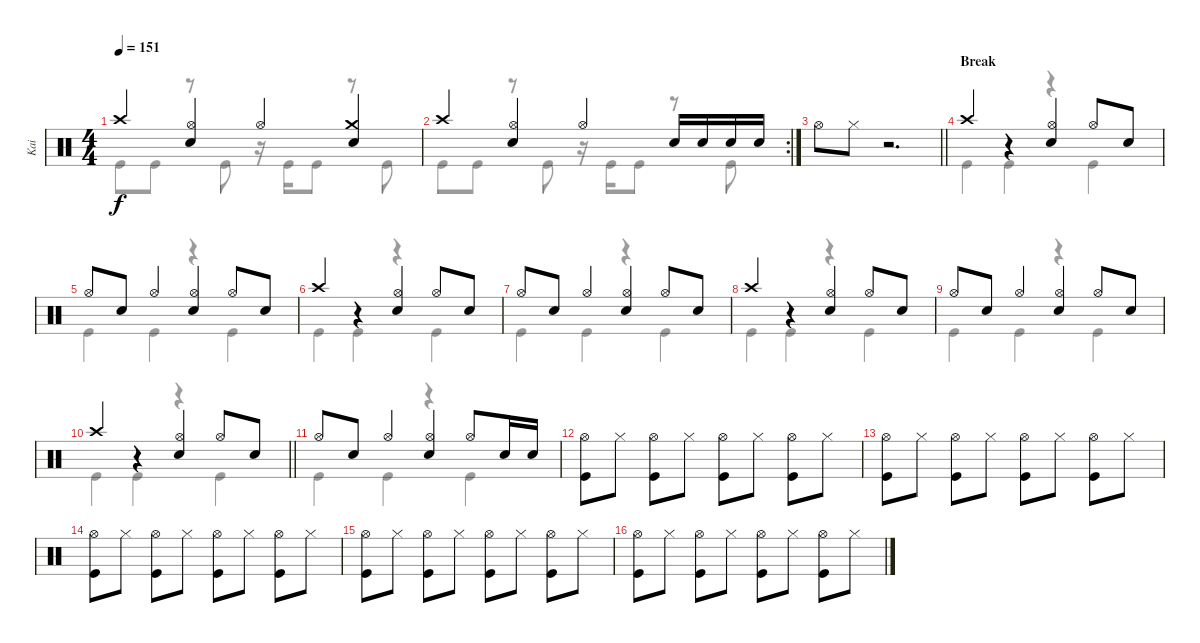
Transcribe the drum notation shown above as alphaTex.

\track ("Kai" "Kai") {instrument percussion}
\staff {score}
\articulation defaults
\voice
\ts (4 4)
\tempo 151
\clef neutral
\ks c "Crash high (hit)".4{dy f}
("Hi-Hat (open)" "Electric Snare (hit)").4 "Hi-Hat (open)".4 ("Crash medium (hit)" "Electric Snare (hit)").4 |
\rc 2 "Crash high (hit)".4
("Hi-Hat (open)" "Electric Snare (hit)").4 "Hi-Hat (open)".4 "Electric Snare (hit)".16 "Electric Snare (hit)".16 "Electric Snare (hit)".16 "Electric Snare (hit)".16 |
\barLineRight lightlight "Hi-Hat (open)".8 "Hi-Hat (closed)".8
r.2{d} |
\section ("" "Break")
"Crash high (hit)".4 r.4 ("Hi-Hat (open)" "Electric Snare (hit)").4 "Hi-Hat (open)".8 "Electric Snare (hit)".8 |
"Hi-Hat (open)".8 "Electric Snare (hit)".8 "Hi-Hat (open)".4 ("Hi-Hat (open)" "Electric Snare (hit)").4 "Hi-Hat (open)".8 "Electric Snare (hit)".8 |
"Crash high (hit)".4 r.4 ("Hi-Hat (open)" "Electric Snare (hit)").4 "Hi-Hat (open)".8 "Electric Snare (hit)".8 |
"Hi-Hat (open)".8 "Electric Snare (hit)".8 "Hi-Hat (open)".4 ("Hi-Hat (open)" "Electric Snare (hit)").4 "Hi-Hat (open)".8 "Electric Snare (hit)".8 |
"Crash high (hit)".4 r.4 ("Hi-Hat (open)" "Electric Snare (hit)").4 "Hi-Hat (open)".8 "Electric Snare (hit)".8 |
"Hi-Hat (open)".8 "Electric Snare (hit)".8 "Hi-Hat (open)".4 ("Hi-Hat (open)" "Electric Snare (hit)").4 "Hi-Hat (open)".8 "Electric Snare (hit)".8 |
\barLineRight lightlight "Crash high (hit)".4
r.4 ("Hi-Hat (open)" "Electric Snare (hit)").4 "Hi-Hat (open)".8 "Electric Snare (hit)".8 |
"Hi-Hat (open)".8 "Electric Snare (hit)".8 "Hi-Hat (open)".4 ("Hi-Hat (open)" "Electric Snare (hit)").4 "Hi-Hat (open)".8 "Electric Snare (hit)".16 "Electric Snare (hit)".16 |
("Hi-Hat (open)" "Kick (hit)").8 "Hi-Hat (closed)".8 ("Hi-Hat (open)" "Kick (hit)").8 "Hi-Hat (closed)".8 ("Hi-Hat (open)" "Kick (hit)").8 "Hi-Hat (closed)".8 ("Hi-Hat (open)" "Kick (hit)").8 "Hi-Hat (closed)".8 |
("Hi-Hat (open)" "Kick (hit)").8 "Hi-Hat (closed)".8 ("Hi-Hat (open)" "Kick (hit)").8 "Hi-Hat (closed)".8 ("Hi-Hat (open)" "Kick (hit)").8 "Hi-Hat (closed)".8 ("Hi-Hat (open)" "Kick (hit)").8 "Hi-Hat (closed)".8 |
("Hi-Hat (open)" "Kick (hit)").8 "Hi-Hat (closed)".8 ("Hi-Hat (open)" "Kick (hit)").8 "Hi-Hat (closed)".8 ("Hi-Hat (open)" "Kick (hit)").8 "Hi-Hat (closed)".8 ("Hi-Hat (open)" "Kick (hit)").8 "Hi-Hat (closed)".8 |
("Hi-Hat (open)" "Kick (hit)").8 "Hi-Hat (closed)".8 ("Hi-Hat (open)" "Kick (hit)").8 "Hi-Hat (closed)".8 ("Hi-Hat (open)" "Kick (hit)").8 "Hi-Hat (closed)".8 ("Hi-Hat (open)" "Kick (hit)").8 "Hi-Hat (closed)".8 |
("Hi-Hat (open)" "Kick (hit)").8 "Hi-Hat (closed)".8 ("Hi-Hat (open)" "Kick (hit)").8 "Hi-Hat (closed)".8 ("Hi-Hat (open)" "Kick (hit)").8 "Hi-Hat (closed)".8 ("Hi-Hat (open)" "Kick (hit)").8 "Hi-Hat (closed)".8
\voice
\clef neutral
\ottava regular
\simile none
\ks c "Kick (hit)".8{dy f} "Kick (hit)".8
r.8 "Kick (hit)".8 r.16 "Kick (hit)".16 "Kick (hit)".8 r.8 "Kick (hit)".8 |
"Kick (hit)".8 "Kick (hit)".8 r.8 "Kick (hit)".8 r.16 "Kick (hit)".16 "Kick (hit)".8 r.8 "Kick (hit)".8 |
\barLineRight lightlight
|
"Kick (hit)".4 "Kick (hit)".4 r.4 "Kick (hit)".4 |
"Kick (hit)".4 "Kick (hit)".4 r.4 "Kick (hit)".4 |
"Kick (hit)".4 "Kick (hit)".4 r.4 "Kick (hit)".4 |
"Kick (hit)".4 "Kick (hit)".4 r.4 "Kick (hit)".4 |
"Kick (hit)".4 "Kick (hit)".4 r.4 "Kick (hit)".4 |
"Kick (hit)".4 "Kick (hit)".4 r.4 "Kick (hit)".4 |
\barLineRight lightlight "Kick (hit)".4 "Kick (hit)".4
r.4 "Kick (hit)".4 |
"Kick (hit)".4 "Kick (hit)".4 r.4 "Kick (hit)".4 |
|
|
|
|
